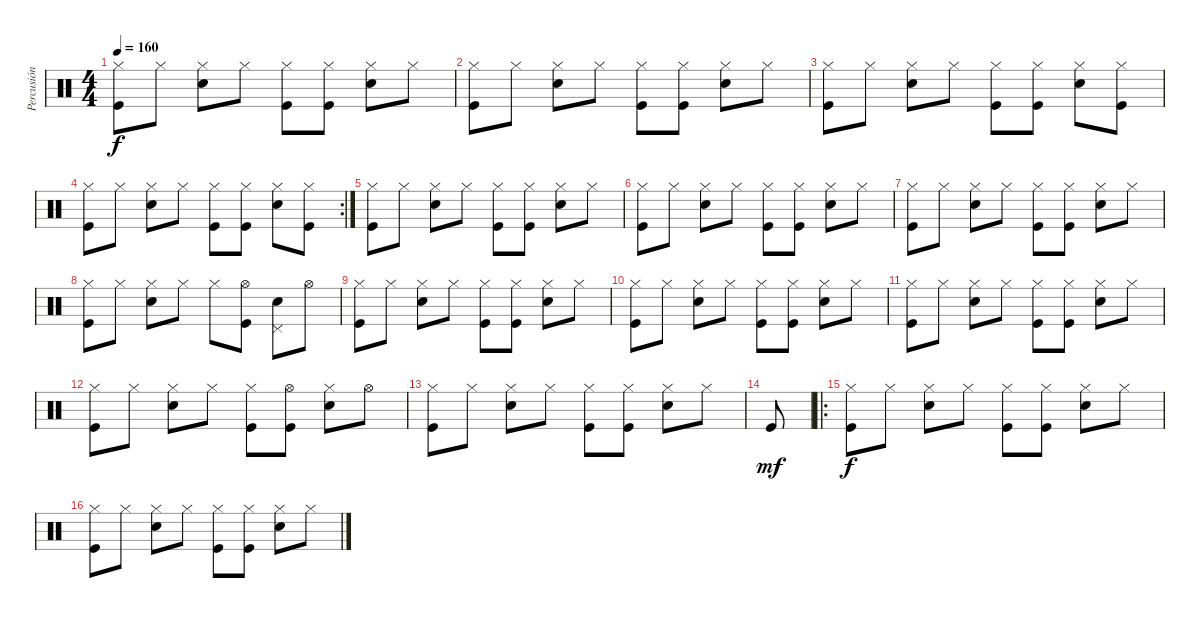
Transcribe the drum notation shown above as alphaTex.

\track ("Percusión" "Percusión") {instrument percussion}
\staff {score}
\articulation defaults
\ts (4 4)
\tempo 160
\clef neutral
\ks c
("Hi-Hat (closed)" "Kick (hit)").8{dy f} "Hi-Hat (closed)".8 ("Hi-Hat (closed)" "Electric Snare (hit)").8 "Hi-Hat (closed)".8 ("Hi-Hat (closed)" "Kick (hit)").8 ("Hi-Hat (closed)" "Kick (hit)").8 ("Hi-Hat (closed)" "Electric Snare (hit)").8 "Hi-Hat (closed)".8 |
("Hi-Hat (closed)" "Kick (hit)").8 "Hi-Hat (closed)".8 ("Hi-Hat (closed)" "Electric Snare (hit)").8 "Hi-Hat (closed)".8 ("Hi-Hat (closed)" "Kick (hit)").8 ("Hi-Hat (closed)" "Kick (hit)").8 ("Hi-Hat (closed)" "Electric Snare (hit)").8 "Hi-Hat (closed)".8 |
("Hi-Hat (closed)" "Kick (hit)").8 "Hi-Hat (closed)".8 ("Hi-Hat (closed)" "Electric Snare (hit)").8 "Hi-Hat (closed)".8 ("Hi-Hat (closed)" "Kick (hit)").8 ("Hi-Hat (closed)" "Kick (hit)").8 ("Hi-Hat (closed)" "Electric Snare (hit)").8 ("Hi-Hat (closed)" "Kick (hit)").8 |
\rc 2
("Hi-Hat (closed)" "Kick (hit)").8 "Hi-Hat (closed)".8 ("Hi-Hat (closed)" "Electric Snare (hit)").8 "Hi-Hat (closed)".8 ("Hi-Hat (closed)" "Kick (hit)").8 ("Hi-Hat (closed)" "Kick (hit)").8 ("Hi-Hat (closed)" "Electric Snare (hit)").8 ("Hi-Hat (closed)" "Kick (hit)").8 |
("Hi-Hat (closed)" "Kick (hit)").8 "Hi-Hat (closed)".8 ("Hi-Hat (closed)" "Electric Snare (hit)").8 "Hi-Hat (closed)".8 ("Hi-Hat (closed)" "Kick (hit)").8 ("Hi-Hat (closed)" "Kick (hit)").8 ("Hi-Hat (closed)" "Electric Snare (hit)").8 "Hi-Hat (closed)".8 |
("Hi-Hat (closed)" "Kick (hit)").8 "Hi-Hat (closed)".8 ("Hi-Hat (closed)" "Electric Snare (hit)").8 "Hi-Hat (closed)".8 ("Hi-Hat (closed)" "Kick (hit)").8 ("Hi-Hat (closed)" "Kick (hit)").8 ("Hi-Hat (closed)" "Electric Snare (hit)").8 "Hi-Hat (closed)".8 |
("Hi-Hat (closed)" "Kick (hit)").8 "Hi-Hat (closed)".8 ("Hi-Hat (closed)" "Electric Snare (hit)").8 "Hi-Hat (closed)".8 ("Hi-Hat (closed)" "Kick (hit)").8 ("Hi-Hat (closed)" "Kick (hit)").8 ("Hi-Hat (closed)" "Electric Snare (hit)").8 "Hi-Hat (closed)".8 |
("Hi-Hat (closed)" "Kick (hit)").8 "Hi-Hat (closed)".8 ("Hi-Hat (closed)" "Electric Snare (hit)").8 "Hi-Hat (closed)".8 "Hi-Hat (closed)".8 ("Hi-Hat (open)" "Kick (hit)").8 ("Pedal Hi-Hat (hit)" "Electric Snare (hit)").8 "Hi-Hat (open)".8 |
("Hi-Hat (closed)" "Kick (hit)").8 "Hi-Hat (closed)".8 ("Hi-Hat (closed)" "Electric Snare (hit)").8 "Hi-Hat (closed)".8 ("Hi-Hat (closed)" "Kick (hit)").8 ("Hi-Hat (closed)" "Kick (hit)").8 ("Hi-Hat (closed)" "Electric Snare (hit)").8 "Hi-Hat (closed)".8 |
("Hi-Hat (closed)" "Kick (hit)").8 "Hi-Hat (closed)".8 ("Hi-Hat (closed)" "Electric Snare (hit)").8 "Hi-Hat (closed)".8 ("Hi-Hat (closed)" "Kick (hit)").8 ("Hi-Hat (closed)" "Kick (hit)").8 ("Hi-Hat (closed)" "Electric Snare (hit)").8 "Hi-Hat (closed)".8 |
("Hi-Hat (closed)" "Kick (hit)").8 "Hi-Hat (closed)".8 ("Hi-Hat (closed)" "Electric Snare (hit)").8 "Hi-Hat (closed)".8 ("Hi-Hat (closed)" "Kick (hit)").8 ("Hi-Hat (closed)" "Kick (hit)").8 ("Hi-Hat (closed)" "Electric Snare (hit)").8 "Hi-Hat (closed)".8 |
("Hi-Hat (closed)" "Kick (hit)").8 "Hi-Hat (closed)".8 ("Hi-Hat (closed)" "Electric Snare (hit)").8 "Hi-Hat (closed)".8 ("Hi-Hat (closed)" "Kick (hit)").8 ("Hi-Hat (open)" "Kick (hit)").8 ("Hi-Hat (closed)" "Electric Snare (hit)").8 "Hi-Hat (open)".8 |
("Hi-Hat (closed)" "Kick (hit)").8 "Hi-Hat (closed)".8 ("Hi-Hat (closed)" "Electric Snare (hit)").8 "Hi-Hat (closed)".8 ("Hi-Hat (closed)" "Kick (hit)").8 ("Hi-Hat (closed)" "Kick (hit)").8 ("Hi-Hat (closed)" "Electric Snare (hit)").8 "Hi-Hat (closed)".8 |
"Kick (hit)".8{dy mf} |
\ro
("Hi-Hat (closed)" "Kick (hit)").8{dy f} "Hi-Hat (closed)".8 ("Hi-Hat (closed)" "Electric Snare (hit)").8 "Hi-Hat (closed)".8 ("Hi-Hat (closed)" "Kick (hit)").8 ("Hi-Hat (closed)" "Kick (hit)").8 ("Hi-Hat (closed)" "Electric Snare (hit)").8 "Hi-Hat (closed)".8 |
("Hi-Hat (closed)" "Kick (hit)").8 "Hi-Hat (closed)".8 ("Hi-Hat (closed)" "Electric Snare (hit)").8 "Hi-Hat (closed)".8 ("Hi-Hat (closed)" "Kick (hit)").8 ("Hi-Hat (closed)" "Kick (hit)").8 ("Hi-Hat (closed)" "Electric Snare (hit)").8 "Hi-Hat (closed)".8
